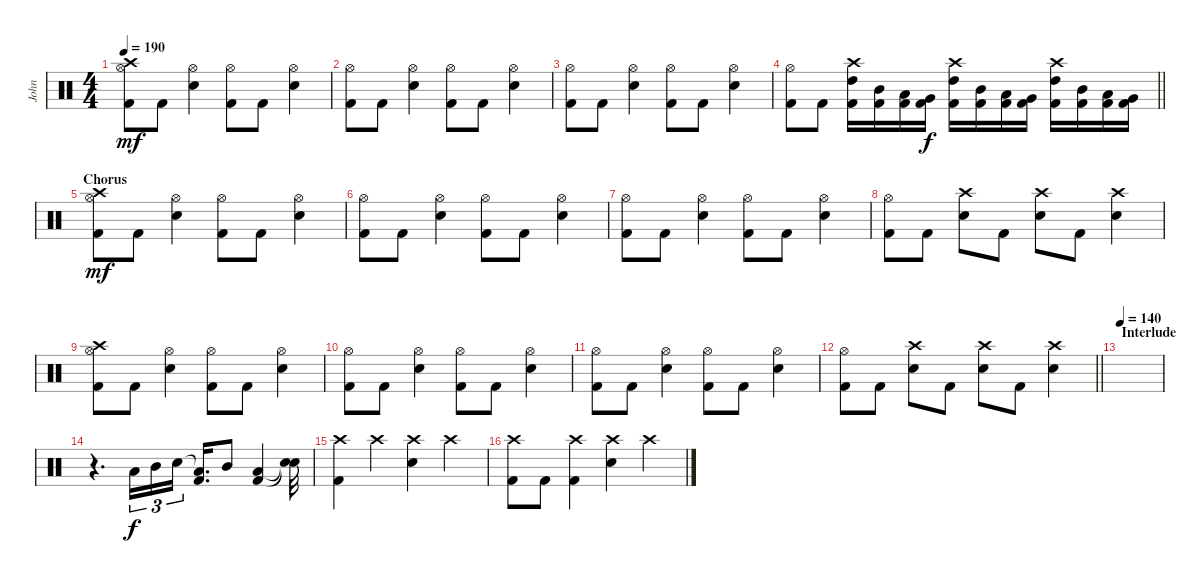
\track ("John" "John") {instrument percussion}
\staff {score}
\articulation defaults
\ts (4 4)
\tempo 190
\clef neutral
\ks c
("Crash high (hit)" "Hi-Hat (open)" "Kick (hit) 2").8{dy mf} "Kick (hit) 2".8 ("Hi-Hat (open)" "Electric Snare (hit)").4 ("Hi-Hat (open)" "Kick (hit) 2").8 "Kick (hit) 2".8 ("Hi-Hat (open)" "Electric Snare (hit)").4 |
("Hi-Hat (open)" "Kick (hit) 2").8 "Kick (hit) 2".8 ("Hi-Hat (open)" "Electric Snare (hit)").4 ("Hi-Hat (open)" "Kick (hit) 2").8 "Kick (hit) 2".8 ("Hi-Hat (open)" "Electric Snare (hit)").4 |
("Hi-Hat (open)" "Kick (hit) 2").8 "Kick (hit) 2".8 ("Hi-Hat (open)" "Electric Snare (hit)").4 ("Hi-Hat (open)" "Kick (hit) 2").8 "Kick (hit) 2".8 ("Hi-Hat (open)" "Electric Snare (hit)").4 |
\barLineRight lightlight
("Hi-Hat (open)" "Kick (hit) 2").8 "Kick (hit) 2".8 ("Crash high (hit)" "High Tom (hit)" "Kick (hit) 2").16 ("Mid Tom (hit)" "Kick (hit) 2").16 ("Low Tom (hit)" "Kick (hit) 2").16 ("Very Low Tom (hit)" "Kick (hit) 2").16{dy f} ("Crash high (hit)" "High Tom (hit)" "Kick (hit) 2").16 ("Mid Tom (hit)" "Kick (hit) 2").16 ("Low Tom (hit)" "Kick (hit) 2").16 ("Very Low Tom (hit)" "Kick (hit) 2").16 ("Crash high (hit)" "High Tom (hit)" "Kick (hit) 2").16 ("Mid Tom (hit)" "Kick (hit) 2").16 ("Low Tom (hit)" "Kick (hit) 2").16 ("Very Low Tom (hit)" "Kick (hit) 2").16 |
\section ("" "Chorus")
("Crash high (hit)" "Hi-Hat (open)" "Kick (hit) 2").8{dy mf} "Kick (hit) 2".8 ("Hi-Hat (open)" "Electric Snare (hit)").4 ("Hi-Hat (open)" "Kick (hit) 2").8 "Kick (hit) 2".8 ("Hi-Hat (open)" "Electric Snare (hit)").4 |
("Hi-Hat (open)" "Kick (hit) 2").8 "Kick (hit) 2".8 ("Hi-Hat (open)" "Electric Snare (hit)").4 ("Hi-Hat (open)" "Kick (hit) 2").8 "Kick (hit) 2".8 ("Hi-Hat (open)" "Electric Snare (hit)").4 |
("Hi-Hat (open)" "Kick (hit) 2").8 "Kick (hit) 2".8 ("Hi-Hat (open)" "Electric Snare (hit)").4 ("Hi-Hat (open)" "Kick (hit) 2").8 "Kick (hit) 2".8 ("Hi-Hat (open)" "Electric Snare (hit)").4 |
("Hi-Hat (open)" "Kick (hit) 2").8 "Kick (hit) 2".8 ("Crash high (hit)" "Electric Snare (hit)").8 "Kick (hit) 2".8 ("Crash high (hit)" "Electric Snare (hit)").8 "Kick (hit) 2".8 ("Crash high (hit)" "Electric Snare (hit)").4 |
("Crash high (hit)" "Hi-Hat (open)" "Kick (hit) 2").8 "Kick (hit) 2".8 ("Hi-Hat (open)" "Electric Snare (hit)").4 ("Hi-Hat (open)" "Kick (hit) 2").8 "Kick (hit) 2".8 ("Hi-Hat (open)" "Electric Snare (hit)").4 |
("Hi-Hat (open)" "Kick (hit) 2").8 "Kick (hit) 2".8 ("Hi-Hat (open)" "Electric Snare (hit)").4 ("Hi-Hat (open)" "Kick (hit) 2").8 "Kick (hit) 2".8 ("Hi-Hat (open)" "Electric Snare (hit)").4 |
("Hi-Hat (open)" "Kick (hit) 2").8 "Kick (hit) 2".8 ("Hi-Hat (open)" "Electric Snare (hit)").4 ("Hi-Hat (open)" "Kick (hit) 2").8 "Kick (hit) 2".8 ("Hi-Hat (open)" "Electric Snare (hit)").4 |
\barLineRight lightlight
("Hi-Hat (open)" "Kick (hit) 2").8 "Kick (hit) 2".8 ("Crash high (hit)" "Electric Snare (hit)").8 "Kick (hit) 2".8 ("Crash high (hit)" "Electric Snare (hit)").8 "Kick (hit) 2".8 ("Crash high (hit)" "Electric Snare (hit)").4 |
\section ("" "Interlude")
\tempo 140
|
r.4{d} "Low Tom (hit)".16{tu (3 2) dy f} "Mid Tom (hit)".16{tu (3 2)} "Electric Snare (hit)".16{tu (3 2)} ("Low Tom (hit)"{t} "Kick (hit) 2").16{d} "Mid Tom (hit)".8 ("Low Tom (hit)" "Kick (hit) 2").4 ("Snare (hit)"{t} "Snare (hit)"{t}).32 |
("Crash high (hit)" "Kick (hit) 2").4 "Crash high (hit)".4 ("Crash high (hit)" "Electric Snare (hit)").4 "Crash high (hit)".4 |
("Crash high (hit)" "Kick (hit) 2").8 "Kick (hit) 2".8 ("Crash high (hit)" "Kick (hit) 2").4 ("Crash high (hit)" "Electric Snare (hit)").4 "Crash high (hit)".4
